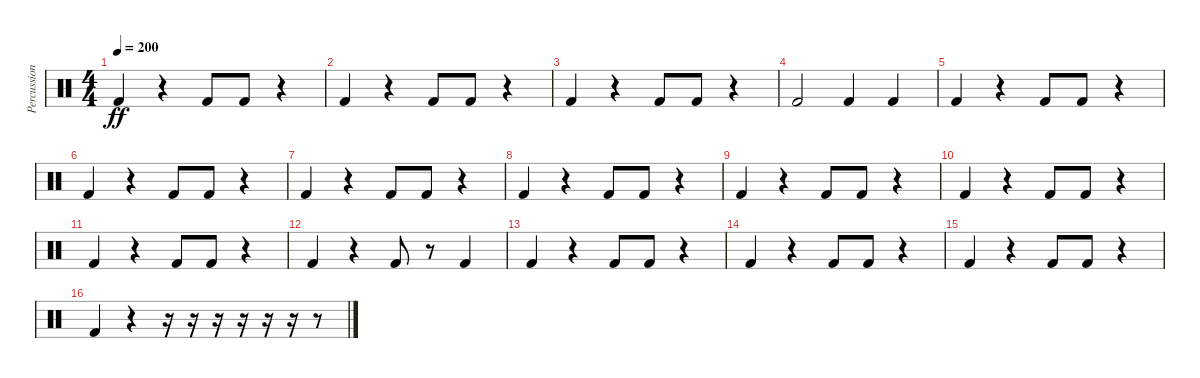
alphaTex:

\track ("Percussions 2" "Percussion") {instrument percussion}
\staff {score}
\articulation defaults
\ts (4 4)
\tempo 200
\clef neutral
\ks c "Kick (hit) 2".4{dy ff}
r.4 "Kick (hit) 2".8 "Kick (hit) 2".8 r.4 |
"Kick (hit) 2".4 r.4 "Kick (hit) 2".8 "Kick (hit) 2".8 r.4 |
"Kick (hit) 2".4 r.4 "Kick (hit) 2".8 "Kick (hit) 2".8 r.4 |
"Kick (hit) 2".2 "Kick (hit) 2".4 "Kick (hit) 2".4 |
"Kick (hit) 2".4 r.4 "Kick (hit) 2".8 "Kick (hit) 2".8 r.4 |
"Kick (hit) 2".4 r.4 "Kick (hit) 2".8 "Kick (hit) 2".8 r.4 |
"Kick (hit) 2".4 r.4 "Kick (hit) 2".8 "Kick (hit) 2".8 r.4 |
"Kick (hit) 2".4 r.4 "Kick (hit) 2".8 "Kick (hit) 2".8 r.4 |
"Kick (hit) 2".4 r.4 "Kick (hit) 2".8 "Kick (hit) 2".8 r.4 |
"Kick (hit) 2".4 r.4 "Kick (hit) 2".8 "Kick (hit) 2".8 r.4 |
"Kick (hit) 2".4 r.4 "Kick (hit) 2".8 "Kick (hit) 2".8 r.4 |
"Kick (hit) 2".4 r.4 "Kick (hit) 2".8 r.8 "Kick (hit) 2".4 |
"Kick (hit) 2".4 r.4 "Kick (hit) 2".8 "Kick (hit) 2".8 r.4 |
"Kick (hit) 2".4 r.4 "Kick (hit) 2".8 "Kick (hit) 2".8 r.4 |
"Kick (hit) 2".4 r.4 "Kick (hit) 2".8 "Kick (hit) 2".8 r.4 |
"Kick (hit) 2".4 r.4 r.16 r.16 r.16 r.16 r.16 r.16 r.8
